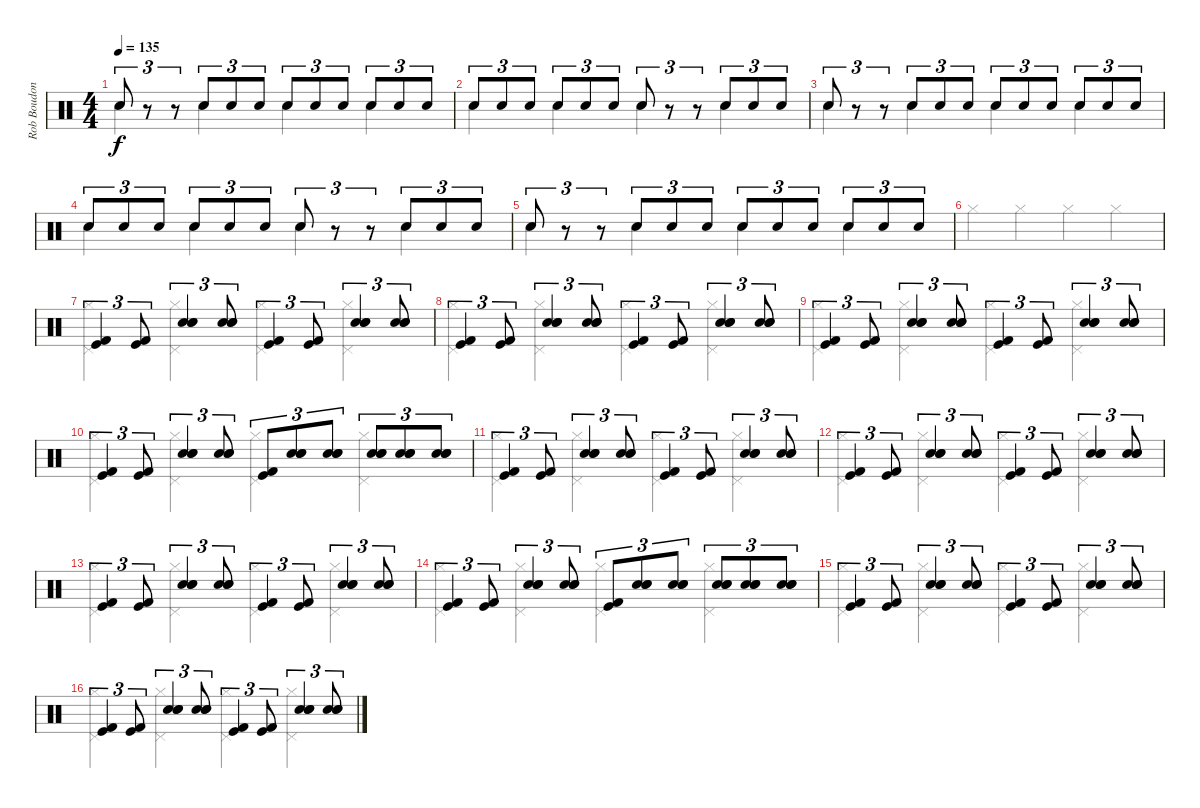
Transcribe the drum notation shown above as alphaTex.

\track ("Rob Boudon [Drums]" "Rob Boudon") {instrument percussion}
\staff {score}
\articulation defaults
\voice
\ts (4 4)
\tempo 135
\clef neutral
\ks c "Snare (hit) 2".8{tu (3 2) dy f}
r.8{tu (3 2)} r.8{tu (3 2)} "Snare (hit) 2".8{tu (3 2)} "Snare (hit) 2".8{tu (3 2)} "Snare (hit) 2".8{tu (3 2)} "Snare (hit) 2".8{tu (3 2)} "Snare (hit) 2".8{tu (3 2)} "Snare (hit) 2".8{tu (3 2)} "Snare (hit) 2".8{tu (3 2)} "Snare (hit) 2".8{tu (3 2)} "Snare (hit) 2".8{tu (3 2)} |
"Snare (hit) 2".8{tu (3 2)} "Snare (hit) 2".8{tu (3 2)} "Snare (hit) 2".8{tu (3 2)} "Snare (hit) 2".8{tu (3 2)} "Snare (hit) 2".8{tu (3 2)} "Snare (hit) 2".8{tu (3 2)} "Snare (hit) 2".8{tu (3 2)} r.8{tu (3 2)} r.8{tu (3 2)} "Snare (hit) 2".8{tu (3 2)} "Snare (hit) 2".8{tu (3 2)} "Snare (hit) 2".8{tu (3 2)} |
"Snare (hit) 2".8{tu (3 2)} r.8{tu (3 2)} r.8{tu (3 2)} "Snare (hit) 2".8{tu (3 2)} "Snare (hit) 2".8{tu (3 2)} "Snare (hit) 2".8{tu (3 2)} "Snare (hit) 2".8{tu (3 2)} "Snare (hit) 2".8{tu (3 2)} "Snare (hit) 2".8{tu (3 2)} "Snare (hit) 2".8{tu (3 2)} "Snare (hit) 2".8{tu (3 2)} "Snare (hit) 2".8{tu (3 2)} |
"Snare (hit) 2".8{tu (3 2)} "Snare (hit) 2".8{tu (3 2)} "Snare (hit) 2".8{tu (3 2)} "Snare (hit) 2".8{tu (3 2)} "Snare (hit) 2".8{tu (3 2)} "Snare (hit) 2".8{tu (3 2)} "Snare (hit) 2".8{tu (3 2)} r.8{tu (3 2)} r.8{tu (3 2)} "Snare (hit) 2".8{tu (3 2)} "Snare (hit) 2".8{tu (3 2)} "Snare (hit) 2".8{tu (3 2)} |
"Snare (hit) 2".8{tu (3 2)} r.8{tu (3 2)} r.8{tu (3 2)} "Snare (hit) 2".8{tu (3 2)} "Snare (hit) 2".8{tu (3 2)} "Snare (hit) 2".8{tu (3 2)} "Snare (hit) 2".8{tu (3 2)} "Snare (hit) 2".8{tu (3 2)} "Snare (hit) 2".8{tu (3 2)} "Snare (hit) 2".8{tu (3 2)} "Snare (hit) 2".8{tu (3 2)} "Snare (hit) 2".8{tu (3 2)} |
|
("Kick (hit) 2" "Kick (hit)").4{tu (3 2)} ("Kick (hit) 2" "Kick (hit)").8{tu (3 2)} ("Hand Clap (hit)" "Snare (hit) 2" "Electric Snare (hit)").4{tu (3 2)} ("Hand Clap (hit)" "Snare (hit) 2" "Electric Snare (hit)").8{tu (3 2)} ("Kick (hit) 2" "Kick (hit)").4{tu (3 2)} ("Kick (hit) 2" "Kick (hit)").8{tu (3 2)} ("Hand Clap (hit)" "Snare (hit) 2" "Electric Snare (hit)").4{tu (3 2)} ("Hand Clap (hit)" "Snare (hit) 2" "Electric Snare (hit)").8{tu (3 2)} |
("Kick (hit) 2" "Kick (hit)").4{tu (3 2)} ("Kick (hit) 2" "Kick (hit)").8{tu (3 2)} ("Hand Clap (hit)" "Snare (hit) 2" "Electric Snare (hit)").4{tu (3 2)} ("Hand Clap (hit)" "Snare (hit) 2" "Electric Snare (hit)").8{tu (3 2)} ("Kick (hit) 2" "Kick (hit)").4{tu (3 2)} ("Kick (hit) 2" "Kick (hit)").8{tu (3 2)} ("Hand Clap (hit)" "Snare (hit) 2" "Electric Snare (hit)").4{tu (3 2)} ("Hand Clap (hit)" "Snare (hit) 2" "Electric Snare (hit)").8{tu (3 2)} |
("Kick (hit) 2" "Kick (hit)").4{tu (3 2)} ("Kick (hit) 2" "Kick (hit)").8{tu (3 2)} ("Hand Clap (hit)" "Snare (hit) 2" "Electric Snare (hit)").4{tu (3 2)} ("Hand Clap (hit)" "Snare (hit) 2" "Electric Snare (hit)").8{tu (3 2)} ("Kick (hit) 2" "Kick (hit)").4{tu (3 2)} ("Kick (hit) 2" "Kick (hit)").8{tu (3 2)} ("Hand Clap (hit)" "Snare (hit) 2" "Electric Snare (hit)").4{tu (3 2)} ("Hand Clap (hit)" "Snare (hit) 2" "Electric Snare (hit)").8{tu (3 2)} |
("Kick (hit) 2" "Kick (hit)").4{tu (3 2)} ("Kick (hit) 2" "Kick (hit)").8{tu (3 2)} ("Hand Clap (hit)" "Snare (hit) 2" "Electric Snare (hit)").4{tu (3 2)} ("Hand Clap (hit)" "Snare (hit) 2" "Electric Snare (hit)").8{tu (3 2)} ("Kick (hit) 2" "Kick (hit)").8{tu (3 2)} ("Hand Clap (hit)" "Snare (hit) 2" "Electric Snare (hit)").8{tu (3 2)} ("Hand Clap (hit)" "Snare (hit) 2" "Electric Snare (hit)").8{tu (3 2)} ("Hand Clap (hit)" "Snare (hit) 2" "Electric Snare (hit)").8{tu (3 2)} ("Hand Clap (hit)" "Snare (hit) 2" "Electric Snare (hit)").8{tu (3 2)} ("Hand Clap (hit)" "Snare (hit) 2" "Electric Snare (hit)").8{tu (3 2)} |
("Kick (hit) 2" "Kick (hit)").4{tu (3 2)} ("Kick (hit) 2" "Kick (hit)").8{tu (3 2)} ("Hand Clap (hit)" "Snare (hit) 2" "Electric Snare (hit)").4{tu (3 2)} ("Hand Clap (hit)" "Snare (hit) 2" "Electric Snare (hit)").8{tu (3 2)} ("Kick (hit) 2" "Kick (hit)").4{tu (3 2)} ("Kick (hit) 2" "Kick (hit)").8{tu (3 2)} ("Hand Clap (hit)" "Snare (hit) 2" "Electric Snare (hit)").4{tu (3 2)} ("Hand Clap (hit)" "Snare (hit) 2" "Electric Snare (hit)").8{tu (3 2)} |
("Kick (hit) 2" "Kick (hit)").4{tu (3 2)} ("Kick (hit) 2" "Kick (hit)").8{tu (3 2)} ("Hand Clap (hit)" "Snare (hit) 2" "Electric Snare (hit)").4{tu (3 2)} ("Hand Clap (hit)" "Snare (hit) 2" "Electric Snare (hit)").8{tu (3 2)} ("Kick (hit) 2" "Kick (hit)").4{tu (3 2)} ("Kick (hit) 2" "Kick (hit)").8{tu (3 2)} ("Hand Clap (hit)" "Snare (hit) 2" "Electric Snare (hit)").4{tu (3 2)} ("Hand Clap (hit)" "Snare (hit) 2" "Electric Snare (hit)").8{tu (3 2)} |
("Kick (hit) 2" "Kick (hit)").4{tu (3 2)} ("Kick (hit) 2" "Kick (hit)").8{tu (3 2)} ("Hand Clap (hit)" "Snare (hit) 2" "Electric Snare (hit)").4{tu (3 2)} ("Hand Clap (hit)" "Snare (hit) 2" "Electric Snare (hit)").8{tu (3 2)} ("Kick (hit) 2" "Kick (hit)").4{tu (3 2)} ("Kick (hit) 2" "Kick (hit)").8{tu (3 2)} ("Hand Clap (hit)" "Snare (hit) 2" "Electric Snare (hit)").4{tu (3 2)} ("Hand Clap (hit)" "Snare (hit) 2" "Electric Snare (hit)").8{tu (3 2)} |
("Kick (hit) 2" "Kick (hit)").4{tu (3 2)} ("Kick (hit) 2" "Kick (hit)").8{tu (3 2)} ("Hand Clap (hit)" "Snare (hit) 2" "Electric Snare (hit)").4{tu (3 2)} ("Hand Clap (hit)" "Snare (hit) 2" "Electric Snare (hit)").8{tu (3 2)} ("Kick (hit) 2" "Kick (hit)").8{tu (3 2)} ("Hand Clap (hit)" "Snare (hit) 2" "Electric Snare (hit)").8{tu (3 2)} ("Hand Clap (hit)" "Snare (hit) 2" "Electric Snare (hit)").8{tu (3 2)} ("Hand Clap (hit)" "Snare (hit) 2" "Electric Snare (hit)").8{tu (3 2)} ("Hand Clap (hit)" "Snare (hit) 2" "Electric Snare (hit)").8{tu (3 2)} ("Hand Clap (hit)" "Snare (hit) 2" "Electric Snare (hit)").8{tu (3 2)} |
("Kick (hit) 2" "Kick (hit)").4{tu (3 2)} ("Kick (hit) 2" "Kick (hit)").8{tu (3 2)} ("Hand Clap (hit)" "Snare (hit) 2" "Electric Snare (hit)").4{tu (3 2)} ("Hand Clap (hit)" "Snare (hit) 2" "Electric Snare (hit)").8{tu (3 2)} ("Kick (hit) 2" "Kick (hit)").4{tu (3 2)} ("Kick (hit) 2" "Kick (hit)").8{tu (3 2)} ("Hand Clap (hit)" "Snare (hit) 2" "Electric Snare (hit)").4{tu (3 2)} ("Hand Clap (hit)" "Snare (hit) 2" "Electric Snare (hit)").8{tu (3 2)} |
("Kick (hit) 2" "Kick (hit)").4{tu (3 2)} ("Kick (hit) 2" "Kick (hit)").8{tu (3 2)} ("Hand Clap (hit)" "Snare (hit) 2" "Electric Snare (hit)").4{tu (3 2)} ("Hand Clap (hit)" "Snare (hit) 2" "Electric Snare (hit)").8{tu (3 2)} ("Kick (hit) 2" "Kick (hit)").4{tu (3 2)} ("Kick (hit) 2" "Kick (hit)").8{tu (3 2)} ("Hand Clap (hit)" "Snare (hit) 2" "Electric Snare (hit)").4{tu (3 2)} ("Hand Clap (hit)" "Snare (hit) 2" "Electric Snare (hit)").8{tu (3 2)}
\voice
\clef neutral
\ottava regular
\simile none
\ks c "Hand Clap (hit)".4{dy f} "Hand Clap (hit)".4 "Hand Clap (hit)".4 "Hand Clap (hit)".4
|
"Hand Clap (hit)".4 "Hand Clap (hit)".4 "Hand Clap (hit)".4 "Hand Clap (hit)".4 |
"Hand Clap (hit)".4 "Hand Clap (hit)".4 "Hand Clap (hit)".4 "Hand Clap (hit)".4 |
"Hand Clap (hit)".4 "Hand Clap (hit)".4 "Hand Clap (hit)".4 "Hand Clap (hit)".4 |
"Hand Clap (hit)".4 "Hand Clap (hit)".4 "Hand Clap (hit)".4 "Hand Clap (hit)".4 |
"Hi-Hat (closed)".4 "Hi-Hat (closed)".4 "Hi-Hat (closed)".4 "Hi-Hat (closed)".4 |
("Hi-Hat (closed)" "Pedal Hi-Hat (hit)").4 ("Hi-Hat (closed)" "Pedal Hi-Hat (hit)").4 ("Hi-Hat (closed)" "Pedal Hi-Hat (hit)").4 ("Hi-Hat (closed)" "Pedal Hi-Hat (hit)").4 |
("Hi-Hat (closed)" "Pedal Hi-Hat (hit)").4 ("Hi-Hat (closed)" "Pedal Hi-Hat (hit)").4 ("Hi-Hat (closed)" "Pedal Hi-Hat (hit)").4 ("Hi-Hat (closed)" "Pedal Hi-Hat (hit)").4 |
("Hi-Hat (closed)" "Pedal Hi-Hat (hit)").4 ("Hi-Hat (closed)" "Pedal Hi-Hat (hit)").4 ("Hi-Hat (closed)" "Pedal Hi-Hat (hit)").4 ("Hi-Hat (closed)" "Pedal Hi-Hat (hit)").4 |
("Hi-Hat (closed)" "Pedal Hi-Hat (hit)").4 ("Hi-Hat (closed)" "Pedal Hi-Hat (hit)").4 ("Hi-Hat (closed)" "Pedal Hi-Hat (hit)").4 ("Hi-Hat (closed)" "Pedal Hi-Hat (hit)").4 |
("Hi-Hat (closed)" "Pedal Hi-Hat (hit)").4 ("Hi-Hat (closed)" "Pedal Hi-Hat (hit)").4 ("Hi-Hat (closed)" "Pedal Hi-Hat (hit)").4 ("Hi-Hat (closed)" "Pedal Hi-Hat (hit)").4 |
("Hi-Hat (closed)" "Pedal Hi-Hat (hit)").4 ("Hi-Hat (closed)" "Pedal Hi-Hat (hit)").4 ("Hi-Hat (closed)" "Pedal Hi-Hat (hit)").4 ("Hi-Hat (closed)" "Pedal Hi-Hat (hit)").4 |
("Hi-Hat (closed)" "Pedal Hi-Hat (hit)").4 ("Hi-Hat (closed)" "Pedal Hi-Hat (hit)").4 ("Hi-Hat (closed)" "Pedal Hi-Hat (hit)").4 ("Hi-Hat (closed)" "Pedal Hi-Hat (hit)").4 |
("Hi-Hat (closed)" "Pedal Hi-Hat (hit)").4 ("Hi-Hat (closed)" "Pedal Hi-Hat (hit)").4 ("Hi-Hat (closed)" "Pedal Hi-Hat (hit)").4 ("Hi-Hat (closed)" "Pedal Hi-Hat (hit)").4 |
("Hi-Hat (closed)" "Pedal Hi-Hat (hit)").4 ("Hi-Hat (closed)" "Pedal Hi-Hat (hit)").4 ("Hi-Hat (closed)" "Pedal Hi-Hat (hit)").4 ("Hi-Hat (closed)" "Pedal Hi-Hat (hit)").4 |
("Hi-Hat (closed)" "Pedal Hi-Hat (hit)").4 ("Hi-Hat (closed)" "Pedal Hi-Hat (hit)").4 ("Hi-Hat (closed)" "Pedal Hi-Hat (hit)").4 ("Hi-Hat (closed)" "Pedal Hi-Hat (hit)").4
